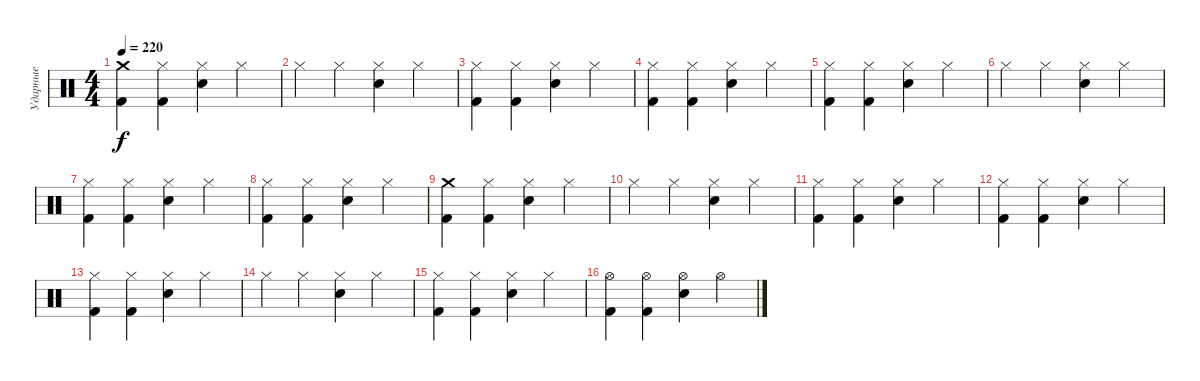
\track ("Ударные" "Ударные") {instrument percussion}
\staff {score}
\articulation defaults
\ts (4 4)
\tempo 220
\clef neutral
\ks c
("Crash medium (hit)" "Kick (hit) 2").4{dy f} ("Hi-Hat (closed)" "Kick (hit) 2").4 ("Hi-Hat (closed)" "Electric Snare (hit)").4 "Hi-Hat (closed)".4 |
"Hi-Hat (closed)".4 "Hi-Hat (closed)".4 ("Hi-Hat (closed)" "Electric Snare (hit)").4 "Hi-Hat (closed)".4 |
("Hi-Hat (closed)" "Kick (hit) 2").4 ("Hi-Hat (closed)" "Kick (hit) 2").4 ("Hi-Hat (closed)" "Electric Snare (hit)").4 "Hi-Hat (closed)".4 |
("Hi-Hat (closed)" "Kick (hit) 2").4 ("Hi-Hat (closed)" "Kick (hit) 2").4 ("Hi-Hat (closed)" "Electric Snare (hit)").4 "Hi-Hat (closed)".4 |
("Hi-Hat (closed)" "Kick (hit) 2").4 ("Hi-Hat (closed)" "Kick (hit) 2").4 ("Hi-Hat (closed)" "Electric Snare (hit)").4 "Hi-Hat (closed)".4 |
"Hi-Hat (closed)".4 "Hi-Hat (closed)".4 ("Hi-Hat (closed)" "Electric Snare (hit)").4 "Hi-Hat (closed)".4 |
("Hi-Hat (closed)" "Kick (hit) 2").4 ("Hi-Hat (closed)" "Kick (hit) 2").4 ("Hi-Hat (closed)" "Electric Snare (hit)").4 "Hi-Hat (closed)".4 |
("Hi-Hat (closed)" "Kick (hit) 2").4 ("Hi-Hat (closed)" "Kick (hit) 2").4 ("Hi-Hat (closed)" "Electric Snare (hit)").4 "Hi-Hat (closed)".4 |
("Crash medium (hit)" "Kick (hit) 2").4 ("Hi-Hat (closed)" "Kick (hit) 2").4 ("Hi-Hat (closed)" "Electric Snare (hit)").4 "Hi-Hat (closed)".4 |
"Hi-Hat (closed)".4 "Hi-Hat (closed)".4 ("Hi-Hat (closed)" "Electric Snare (hit)").4 "Hi-Hat (closed)".4 |
("Hi-Hat (closed)" "Kick (hit) 2").4 ("Hi-Hat (closed)" "Kick (hit) 2").4 ("Hi-Hat (closed)" "Electric Snare (hit)").4 "Hi-Hat (closed)".4 |
("Hi-Hat (closed)" "Kick (hit) 2").4 ("Hi-Hat (closed)" "Kick (hit) 2").4 ("Hi-Hat (closed)" "Electric Snare (hit)").4 "Hi-Hat (closed)".4 |
("Hi-Hat (closed)" "Kick (hit) 2").4 ("Hi-Hat (closed)" "Kick (hit) 2").4 ("Hi-Hat (closed)" "Electric Snare (hit)").4 "Hi-Hat (closed)".4 |
"Hi-Hat (closed)".4 "Hi-Hat (closed)".4 ("Hi-Hat (closed)" "Electric Snare (hit)").4 "Hi-Hat (closed)".4 |
("Hi-Hat (closed)" "Kick (hit) 2").4 ("Hi-Hat (closed)" "Kick (hit) 2").4 ("Hi-Hat (closed)" "Electric Snare (hit)").4 "Hi-Hat (closed)".4 |
("Hi-Hat (open)" "Kick (hit) 2").4 ("Hi-Hat (open)" "Kick (hit) 2").4 ("Hi-Hat (open)" "Electric Snare (hit)").4 "Hi-Hat (open)".4
